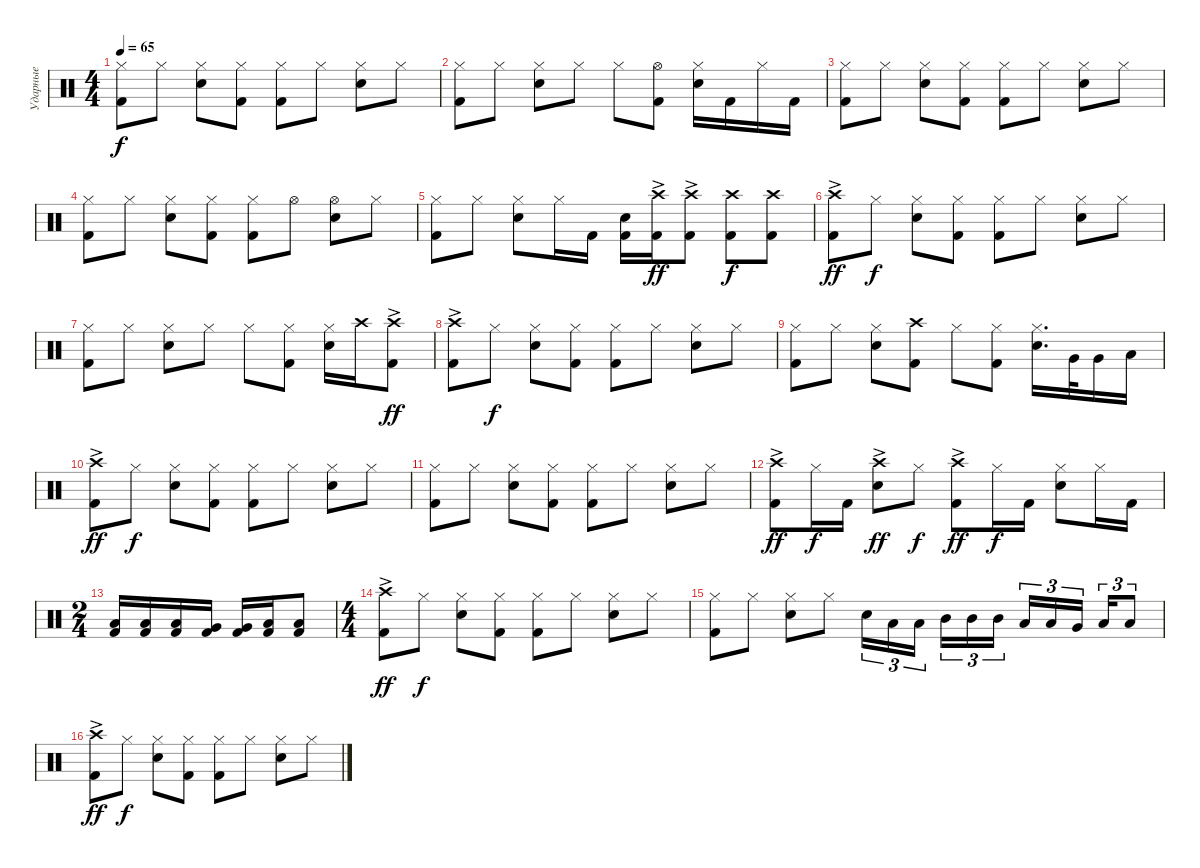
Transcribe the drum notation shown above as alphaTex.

\track ("Ударные" "Ударные") {instrument percussion}
\staff {score}
\articulation defaults
\ts (4 4)
\tempo 65
\clef neutral
\ks c
("Kick (hit) 2" "Hi-Hat (closed)").8{dy f} "Hi-Hat (closed)".8 ("Snare (hit) 2" "Hi-Hat (closed)").8 ("Kick (hit) 2" "Hi-Hat (closed)").8 ("Kick (hit) 2" "Hi-Hat (closed)").8 "Hi-Hat (closed)".8 ("Snare (hit) 2" "Hi-Hat (closed)").8 "Hi-Hat (closed)".8 |
("Kick (hit) 2" "Hi-Hat (closed)").8 "Hi-Hat (closed)".8 ("Snare (hit) 2" "Hi-Hat (closed)").8 "Hi-Hat (closed)".8 "Hi-Hat (closed)".8 ("Kick (hit) 2" "Hi-Hat (open)").8 ("Snare (hit) 2" "Hi-Hat (closed)").16 "Kick (hit) 2".16 "Hi-Hat (closed)".16 "Kick (hit) 2".16 |
("Kick (hit) 2" "Hi-Hat (closed)").8 "Hi-Hat (closed)".8 ("Snare (hit) 2" "Hi-Hat (closed)").8 ("Kick (hit) 2" "Hi-Hat (closed)").8 ("Kick (hit) 2" "Hi-Hat (closed)").8 "Hi-Hat (closed)".8 ("Snare (hit) 2" "Hi-Hat (closed)").8 "Hi-Hat (closed)".8 |
("Kick (hit) 2" "Hi-Hat (closed)").8 "Hi-Hat (closed)".8 ("Snare (hit) 2" "Hi-Hat (closed)").8 ("Kick (hit) 2" "Hi-Hat (closed)").8 ("Kick (hit) 2" "Hi-Hat (closed)").8 "Hi-Hat (open)".8 ("Snare (hit) 2" "Hi-Hat (open)").8 "Hi-Hat (closed)".8 |
("Kick (hit) 2" "Hi-Hat (closed)").8 "Hi-Hat (closed)".8 ("Snare (hit) 2" "Hi-Hat (closed)").8 "Hi-Hat (closed)".16 "Kick (hit) 2".16 ("Kick (hit) 2" "Snare (hit) 2").16 ("Kick (hit) 2" "Crash high (hit)"{ac}).16{dy ff} ("Kick (hit) 2" "Crash high (hit)"{ac}).8 ("Kick (hit) 2" "Crash high (hit)").8{dy f} ("Kick (hit) 2" "Crash high (hit)").8 |
("Kick (hit) 2" "Crash high (hit)"{ac}).8{dy ff} "Hi-Hat (closed)".8{dy f} ("Snare (hit) 2" "Hi-Hat (closed)").8 ("Kick (hit) 2" "Hi-Hat (closed)").8 ("Kick (hit) 2" "Hi-Hat (closed)").8 "Hi-Hat (closed)".8 ("Snare (hit) 2" "Hi-Hat (closed)").8 "Hi-Hat (closed)".8 |
("Kick (hit) 2" "Hi-Hat (closed)").8 "Hi-Hat (closed)".8 ("Snare (hit) 2" "Hi-Hat (closed)").8 "Hi-Hat (closed)".8 "Hi-Hat (closed)".8 ("Kick (hit) 2" "Hi-Hat (closed)").8 ("Snare (hit) 2" "Hi-Hat (closed)").16 "Crash high (hit)".16 ("Kick (hit) 2" "Crash high (hit)"{ac}).8{dy ff} |
("Kick (hit) 2" "Crash high (hit)"{ac}).8 "Hi-Hat (closed)".8{dy f} ("Snare (hit) 2" "Hi-Hat (closed)").8 ("Kick (hit) 2" "Hi-Hat (closed)").8 ("Kick (hit) 2" "Hi-Hat (closed)").8 "Hi-Hat (closed)".8 ("Snare (hit) 2" "Hi-Hat (closed)").8 "Hi-Hat (closed)".8 |
("Kick (hit) 2" "Hi-Hat (closed)").8 "Hi-Hat (closed)".8 ("Snare (hit) 2" "Hi-Hat (closed)").8 ("Kick (hit) 2" "Crash high (hit)").8 "Hi-Hat (closed)".8 ("Kick (hit) 2" "Hi-Hat (closed)").8 ("Snare (hit) 2" "Hi-Hat (closed)").16{d} "Very Low Tom (hit)".32 "Very Low Tom (hit)".16 "Low Floor Tom (hit)".16 |
("Kick (hit) 2" "Crash high (hit)"{ac}).8{dy ff} "Hi-Hat (closed)".8{dy f} ("Snare (hit) 2" "Hi-Hat (closed)").8 ("Kick (hit) 2" "Hi-Hat (closed)").8 ("Kick (hit) 2" "Hi-Hat (closed)").8 "Hi-Hat (closed)".8 ("Snare (hit) 2" "Hi-Hat (closed)").8 "Hi-Hat (closed)".8 |
("Kick (hit) 2" "Hi-Hat (closed)").8 "Hi-Hat (closed)".8 ("Snare (hit) 2" "Hi-Hat (closed)").8 ("Kick (hit) 2" "Hi-Hat (closed)").8 ("Kick (hit) 2" "Hi-Hat (closed)").8 "Hi-Hat (closed)".8 ("Snare (hit) 2" "Hi-Hat (closed)").8 "Hi-Hat (closed)".8 |
("Kick (hit) 2" "Crash high (hit)"{ac}).8{dy ff} "Hi-Hat (closed)".16{dy f} "Kick (hit) 2".16 ("Snare (hit) 2" "Crash high (hit)"{ac}).8{dy ff} "Hi-Hat (closed)".8{dy f} ("Kick (hit) 2" "Crash high (hit)"{ac}).8{dy ff} "Hi-Hat (closed)".16{dy f} "Kick (hit) 2".16 ("Snare (hit) 2" "Hi-Hat (closed)").8 "Hi-Hat (closed)".16 "Kick (hit) 2".16 |
\ts (2 4)
("Kick (hit) 2" "Low Tom (hit)").16 ("Kick (hit) 2" "Low Tom (hit)").16 ("Kick (hit) 2" "Low Tom (hit)").16 ("Kick (hit) 2" "Very Low Tom (hit)").16 ("Kick (hit) 2" "Very Low Tom (hit)").16 ("Kick (hit) 2" "Low Floor Tom (hit)").16 ("Kick (hit) 2" "Low Floor Tom (hit)").8 |
\ts (4 4)
("Kick (hit) 2" "Crash high (hit)"{ac}).8{dy ff} "Hi-Hat (closed)".8{dy f} ("Snare (hit) 2" "Hi-Hat (closed)").8 ("Kick (hit) 2" "Hi-Hat (closed)").8 ("Kick (hit) 2" "Hi-Hat (closed)").8 "Hi-Hat (closed)".8 ("Snare (hit) 2" "Hi-Hat (closed)").8 "Hi-Hat (closed)".8 |
("Kick (hit) 2" "Hi-Hat (closed)").8 "Hi-Hat (closed)".8 ("Snare (hit) 2" "Hi-Hat (closed)").8 "Hi-Hat (closed)".8 "Snare (hit) 2".16{tu (3 2)} "Low Tom (hit)".16{tu (3 2)} "Low Tom (hit)".16{tu (3 2) beam splitsecondary} "Mid Tom (hit)".16{tu (3 2)} "Mid Tom (hit)".16{tu (3 2)} "Mid Tom (hit)".16{tu (3 2)} "Low Tom (hit)".16{tu (3 2)} "Low Tom (hit)".16{tu (3 2)} "Very Low Tom (hit)".16{tu (3 2) beam splitsecondary} "Low Floor Tom (hit)".16{tu (3 2)} "Low Floor Tom (hit)".8{tu (3 2)} |
("Kick (hit) 2" "Crash high (hit)"{ac}).8{dy ff} "Hi-Hat (closed)".8{dy f} ("Snare (hit) 2" "Hi-Hat (closed)").8 ("Kick (hit) 2" "Hi-Hat (closed)").8 ("Kick (hit) 2" "Hi-Hat (closed)").8 "Hi-Hat (closed)".8 ("Snare (hit) 2" "Hi-Hat (closed)").8 "Hi-Hat (closed)".8
